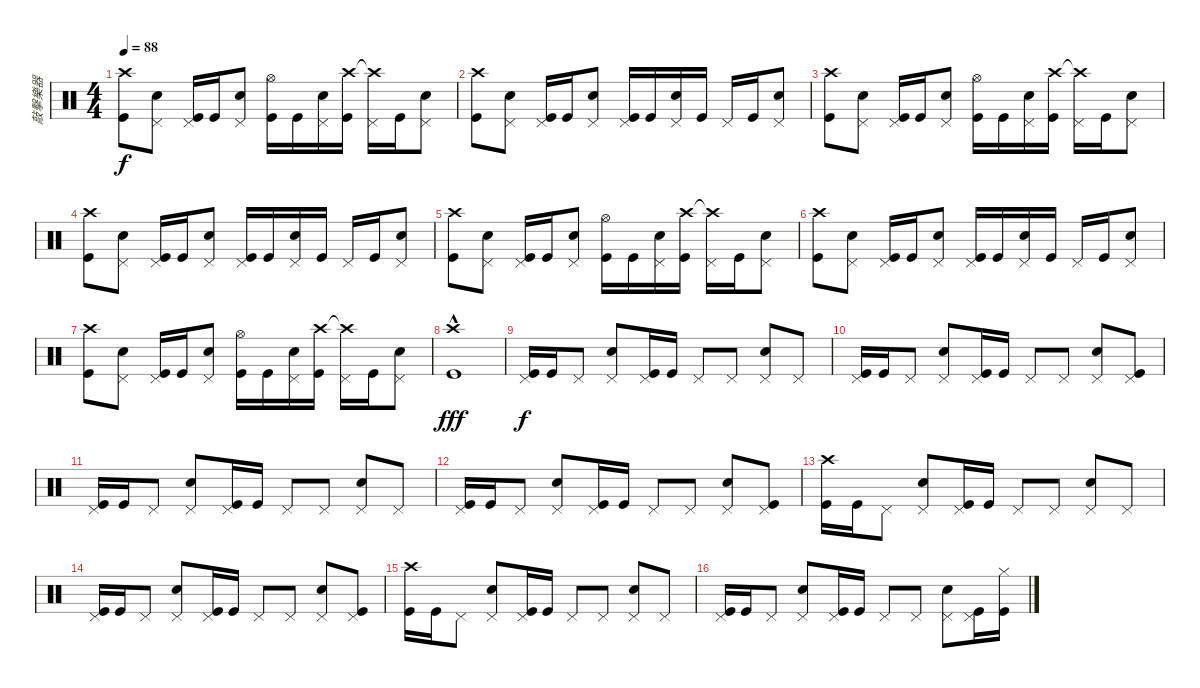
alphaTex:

\track ("敲擊樂器" "敲擊樂器") {instrument percussion}
\staff {score}
\articulation defaults
\ts (4 4)
\tempo 88
\clef neutral
\ks c
("Crash high (hit)" "Kick (hit)").8{dy f} ("Pedal Hi-Hat (hit)" "Snare (hit) 2").8 ("Pedal Hi-Hat (hit)" "Kick (hit)").16 "Kick (hit)".16 ("Pedal Hi-Hat (hit)" "Snare (hit) 2").8 ("Hi-Hat (open)" "Kick (hit)").16 "Kick (hit)".16 ("Pedal Hi-Hat (hit)" "Snare (hit) 2").16 ("Crash high (hit)" "Kick (hit)").16 ("Crash high (hit)"{t} "Pedal Hi-Hat (hit)").16 "Kick (hit)".16 ("Pedal Hi-Hat (hit)" "Snare (hit) 2").8 |
("Crash high (hit)" "Kick (hit)").8 ("Pedal Hi-Hat (hit)" "Snare (hit) 2").8 ("Pedal Hi-Hat (hit)" "Kick (hit)").16 "Kick (hit)".16 ("Pedal Hi-Hat (hit)" "Snare (hit) 2").8 ("Pedal Hi-Hat (hit)" "Kick (hit)").16 "Kick (hit)".16 ("Pedal Hi-Hat (hit)" "Snare (hit) 2").16 "Kick (hit)".16 "Pedal Hi-Hat (hit)".16 "Kick (hit)".16 ("Pedal Hi-Hat (hit)" "Snare (hit) 2").8 |
("Crash high (hit)" "Kick (hit)").8 ("Pedal Hi-Hat (hit)" "Snare (hit) 2").8 ("Pedal Hi-Hat (hit)" "Kick (hit)").16 "Kick (hit)".16 ("Pedal Hi-Hat (hit)" "Snare (hit) 2").8 ("Hi-Hat (open)" "Kick (hit)").16 "Kick (hit)".16 ("Pedal Hi-Hat (hit)" "Snare (hit) 2").16 ("Crash high (hit)" "Kick (hit)").16 ("Crash high (hit)"{t} "Pedal Hi-Hat (hit)").16 "Kick (hit)".16 ("Pedal Hi-Hat (hit)" "Snare (hit) 2").8 |
("Crash high (hit)" "Kick (hit)").8 ("Pedal Hi-Hat (hit)" "Snare (hit) 2").8 ("Pedal Hi-Hat (hit)" "Kick (hit)").16 "Kick (hit)".16 ("Pedal Hi-Hat (hit)" "Snare (hit) 2").8 ("Pedal Hi-Hat (hit)" "Kick (hit)").16 "Kick (hit)".16 ("Pedal Hi-Hat (hit)" "Snare (hit) 2").16 "Kick (hit)".16 "Pedal Hi-Hat (hit)".16 "Kick (hit)".16 ("Pedal Hi-Hat (hit)" "Snare (hit) 2").8 |
("Crash high (hit)" "Kick (hit)").8 ("Pedal Hi-Hat (hit)" "Snare (hit) 2").8 ("Pedal Hi-Hat (hit)" "Kick (hit)").16 "Kick (hit)".16 ("Pedal Hi-Hat (hit)" "Snare (hit) 2").8 ("Hi-Hat (open)" "Kick (hit)").16 "Kick (hit)".16 ("Pedal Hi-Hat (hit)" "Snare (hit) 2").16 ("Crash high (hit)" "Kick (hit)").16 ("Crash high (hit)"{t} "Pedal Hi-Hat (hit)").16 "Kick (hit)".16 ("Pedal Hi-Hat (hit)" "Snare (hit) 2").8 |
("Crash high (hit)" "Kick (hit)").8 ("Pedal Hi-Hat (hit)" "Snare (hit) 2").8 ("Pedal Hi-Hat (hit)" "Kick (hit)").16 "Kick (hit)".16 ("Pedal Hi-Hat (hit)" "Snare (hit) 2").8 ("Pedal Hi-Hat (hit)" "Kick (hit)").16 "Kick (hit)".16 ("Pedal Hi-Hat (hit)" "Snare (hit) 2").16 "Kick (hit)".16 "Pedal Hi-Hat (hit)".16 "Kick (hit)".16 ("Pedal Hi-Hat (hit)" "Snare (hit) 2").8 |
("Crash high (hit)" "Kick (hit)").8 ("Pedal Hi-Hat (hit)" "Snare (hit) 2").8 ("Pedal Hi-Hat (hit)" "Kick (hit)").16 "Kick (hit)".16 ("Pedal Hi-Hat (hit)" "Snare (hit) 2").8 ("Hi-Hat (open)" "Kick (hit)").16 "Kick (hit)".16 ("Pedal Hi-Hat (hit)" "Snare (hit) 2").16 ("Crash high (hit)" "Kick (hit)").16 ("Crash high (hit)"{t} "Pedal Hi-Hat (hit)").16 "Kick (hit)".16 ("Pedal Hi-Hat (hit)" "Snare (hit) 2").8 |
("Crash high (hit)"{hac} "Kick (hit)"{hac}).1{dy fff} |
("Pedal Hi-Hat (hit)" "Kick (hit)").16{dy f} "Kick (hit)".16 "Pedal Hi-Hat (hit)".8 ("Pedal Hi-Hat (hit)" "Snare (hit) 2").8 ("Pedal Hi-Hat (hit)" "Kick (hit)").16 "Kick (hit)".16 "Pedal Hi-Hat (hit)".8 "Pedal Hi-Hat (hit)".8 ("Pedal Hi-Hat (hit)" "Snare (hit) 2").8 "Pedal Hi-Hat (hit)".8 |
("Pedal Hi-Hat (hit)" "Kick (hit)").16 "Kick (hit)".16 "Pedal Hi-Hat (hit)".8 ("Pedal Hi-Hat (hit)" "Snare (hit) 2").8 ("Pedal Hi-Hat (hit)" "Kick (hit)").16 "Kick (hit)".16 "Pedal Hi-Hat (hit)".8 "Pedal Hi-Hat (hit)".8 ("Pedal Hi-Hat (hit)" "Snare (hit) 2").8 ("Pedal Hi-Hat (hit)" "Kick (hit)").8 |
("Pedal Hi-Hat (hit)" "Kick (hit)").16 "Kick (hit)".16 "Pedal Hi-Hat (hit)".8 ("Pedal Hi-Hat (hit)" "Snare (hit) 2").8 ("Pedal Hi-Hat (hit)" "Kick (hit)").16 "Kick (hit)".16 "Pedal Hi-Hat (hit)".8 "Pedal Hi-Hat (hit)".8 ("Pedal Hi-Hat (hit)" "Snare (hit) 2").8 "Pedal Hi-Hat (hit)".8 |
("Pedal Hi-Hat (hit)" "Kick (hit)").16 "Kick (hit)".16 "Pedal Hi-Hat (hit)".8 ("Pedal Hi-Hat (hit)" "Snare (hit) 2").8 ("Pedal Hi-Hat (hit)" "Kick (hit)").16 "Kick (hit)".16 "Pedal Hi-Hat (hit)".8 "Pedal Hi-Hat (hit)".8 ("Pedal Hi-Hat (hit)" "Snare (hit) 2").8 ("Pedal Hi-Hat (hit)" "Kick (hit)").8 |
("Crash high (hit)" "Kick (hit)").16 "Kick (hit)".16 "Pedal Hi-Hat (hit)".8 ("Pedal Hi-Hat (hit)" "Snare (hit) 2").8 ("Pedal Hi-Hat (hit)" "Kick (hit)").16 "Kick (hit)".16 "Pedal Hi-Hat (hit)".8 "Pedal Hi-Hat (hit)".8 ("Pedal Hi-Hat (hit)" "Snare (hit) 2").8 "Pedal Hi-Hat (hit)".8 |
("Pedal Hi-Hat (hit)" "Kick (hit)").16 "Kick (hit)".16 "Pedal Hi-Hat (hit)".8 ("Pedal Hi-Hat (hit)" "Snare (hit) 2").8 ("Pedal Hi-Hat (hit)" "Kick (hit)").16 "Kick (hit)".16 "Pedal Hi-Hat (hit)".8 "Pedal Hi-Hat (hit)".8 ("Pedal Hi-Hat (hit)" "Snare (hit) 2").8 ("Pedal Hi-Hat (hit)" "Kick (hit)").8 |
("Crash high (hit)" "Kick (hit)").16 "Kick (hit)".16 "Pedal Hi-Hat (hit)".8 ("Pedal Hi-Hat (hit)" "Snare (hit) 2").8 ("Pedal Hi-Hat (hit)" "Kick (hit)").16 "Kick (hit)".16 "Pedal Hi-Hat (hit)".8 "Pedal Hi-Hat (hit)".8 ("Pedal Hi-Hat (hit)" "Snare (hit) 2").8 "Pedal Hi-Hat (hit)".8 |
("Pedal Hi-Hat (hit)" "Kick (hit)").16 "Kick (hit)".16 "Pedal Hi-Hat (hit)".8 ("Pedal Hi-Hat (hit)" "Snare (hit) 2").8 ("Pedal Hi-Hat (hit)" "Kick (hit)").16 "Kick (hit)".16 "Pedal Hi-Hat (hit)".8 "Pedal Hi-Hat (hit)".8 ("Pedal Hi-Hat (hit)" "Snare (hit) 2").8 ("Pedal Hi-Hat (hit)" "Kick (hit)").16 ("Hi-Hat (closed)" "Kick (hit)").16
